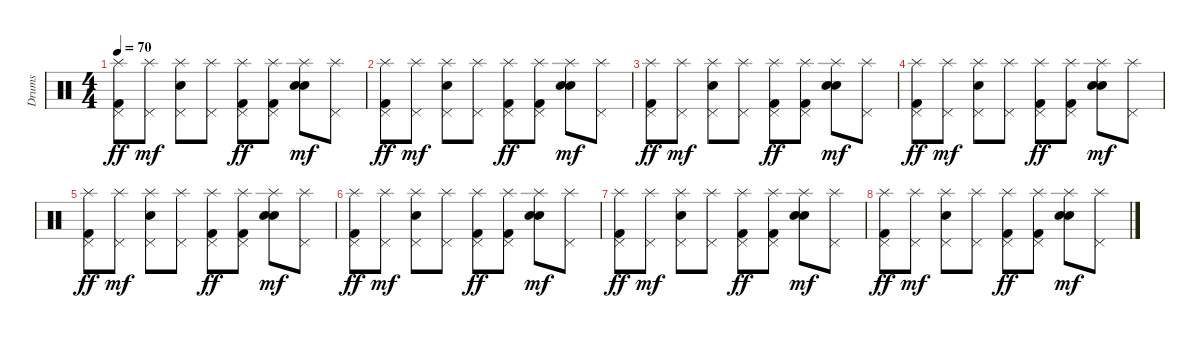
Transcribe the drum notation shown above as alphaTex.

\track ("Drums" "Drums") {instrument percussion}
\staff {score}
\articulation defaults
\ts (4 4)
\tempo 70
\clef neutral
\ks c
("Splash (hit)" "Pedal Hi-Hat (hit)" "Kick (hit) 2").8{dy ff} ("Splash (hit)" "Pedal Hi-Hat (hit)").8{dy mf} ("Splash (hit)" "Pedal Hi-Hat (hit)" "Snare (hit) 2").8 ("Splash (hit)" "Pedal Hi-Hat (hit)").8 ("Splash (hit)" "Pedal Hi-Hat (hit)" "Kick (hit) 2").8{dy ff} ("Splash (hit)" "Pedal Hi-Hat (hit)" "Kick (hit) 2").8 ("Splash (hit)" "Electric Snare (hit)" "Snare (hit) 2").8{dy mf} ("Splash (hit)" "Pedal Hi-Hat (hit)").8 |
("Splash (hit)" "Pedal Hi-Hat (hit)" "Kick (hit) 2").8{dy ff} ("Splash (hit)" "Pedal Hi-Hat (hit)").8{dy mf} ("Splash (hit)" "Pedal Hi-Hat (hit)" "Snare (hit) 2").8 ("Splash (hit)" "Pedal Hi-Hat (hit)").8 ("Splash (hit)" "Pedal Hi-Hat (hit)" "Kick (hit) 2").8{dy ff} ("Splash (hit)" "Pedal Hi-Hat (hit)" "Kick (hit) 2").8 ("Splash (hit)" "Electric Snare (hit)" "Snare (hit) 2").8{dy mf} ("Splash (hit)" "Pedal Hi-Hat (hit)").8 |
("Splash (hit)" "Pedal Hi-Hat (hit)" "Kick (hit) 2").8{dy ff} ("Splash (hit)" "Pedal Hi-Hat (hit)").8{dy mf} ("Splash (hit)" "Pedal Hi-Hat (hit)" "Snare (hit) 2").8 ("Splash (hit)" "Pedal Hi-Hat (hit)").8 ("Splash (hit)" "Pedal Hi-Hat (hit)" "Kick (hit) 2").8{dy ff} ("Splash (hit)" "Pedal Hi-Hat (hit)" "Kick (hit) 2").8 ("Splash (hit)" "Electric Snare (hit)" "Snare (hit) 2").8{dy mf} ("Splash (hit)" "Pedal Hi-Hat (hit)").8 |
("Splash (hit)" "Pedal Hi-Hat (hit)" "Kick (hit) 2").8{dy ff} ("Splash (hit)" "Pedal Hi-Hat (hit)").8{dy mf} ("Splash (hit)" "Pedal Hi-Hat (hit)" "Snare (hit) 2").8 ("Splash (hit)" "Pedal Hi-Hat (hit)").8 ("Splash (hit)" "Pedal Hi-Hat (hit)" "Kick (hit) 2").8{dy ff} ("Splash (hit)" "Pedal Hi-Hat (hit)" "Kick (hit) 2").8 ("Splash (hit)" "Electric Snare (hit)" "Snare (hit) 2").8{dy mf} ("Splash (hit)" "Pedal Hi-Hat (hit)").8 |
("Splash (hit)" "Pedal Hi-Hat (hit)" "Kick (hit) 2").8{dy ff} ("Splash (hit)" "Pedal Hi-Hat (hit)").8{dy mf} ("Splash (hit)" "Pedal Hi-Hat (hit)" "Snare (hit) 2").8 ("Splash (hit)" "Pedal Hi-Hat (hit)").8 ("Splash (hit)" "Pedal Hi-Hat (hit)" "Kick (hit) 2").8{dy ff} ("Splash (hit)" "Pedal Hi-Hat (hit)" "Kick (hit) 2").8 ("Splash (hit)" "Electric Snare (hit)" "Snare (hit) 2").8{dy mf} ("Splash (hit)" "Pedal Hi-Hat (hit)").8 |
("Splash (hit)" "Pedal Hi-Hat (hit)" "Kick (hit) 2").8{dy ff} ("Splash (hit)" "Pedal Hi-Hat (hit)").8{dy mf} ("Splash (hit)" "Pedal Hi-Hat (hit)" "Snare (hit) 2").8 ("Splash (hit)" "Pedal Hi-Hat (hit)").8 ("Splash (hit)" "Pedal Hi-Hat (hit)" "Kick (hit) 2").8{dy ff} ("Splash (hit)" "Pedal Hi-Hat (hit)" "Kick (hit) 2").8 ("Splash (hit)" "Electric Snare (hit)" "Snare (hit) 2").8{dy mf} ("Splash (hit)" "Pedal Hi-Hat (hit)").8 |
("Splash (hit)" "Pedal Hi-Hat (hit)" "Kick (hit) 2").8{dy ff} ("Splash (hit)" "Pedal Hi-Hat (hit)").8{dy mf} ("Splash (hit)" "Pedal Hi-Hat (hit)" "Snare (hit) 2").8 ("Splash (hit)" "Pedal Hi-Hat (hit)").8 ("Splash (hit)" "Pedal Hi-Hat (hit)" "Kick (hit) 2").8{dy ff} ("Splash (hit)" "Pedal Hi-Hat (hit)" "Kick (hit) 2").8 ("Splash (hit)" "Electric Snare (hit)" "Snare (hit) 2").8{dy mf} ("Splash (hit)" "Pedal Hi-Hat (hit)").8 |
("Splash (hit)" "Pedal Hi-Hat (hit)" "Kick (hit) 2").8{dy ff} ("Splash (hit)" "Pedal Hi-Hat (hit)").8{dy mf} ("Splash (hit)" "Pedal Hi-Hat (hit)" "Snare (hit) 2").8 ("Splash (hit)" "Pedal Hi-Hat (hit)").8 ("Splash (hit)" "Pedal Hi-Hat (hit)" "Kick (hit) 2").8{dy ff} ("Splash (hit)" "Pedal Hi-Hat (hit)" "Kick (hit) 2").8 ("Splash (hit)" "Electric Snare (hit)" "Snare (hit) 2").8{dy mf} ("Splash (hit)" "Pedal Hi-Hat (hit)").8
